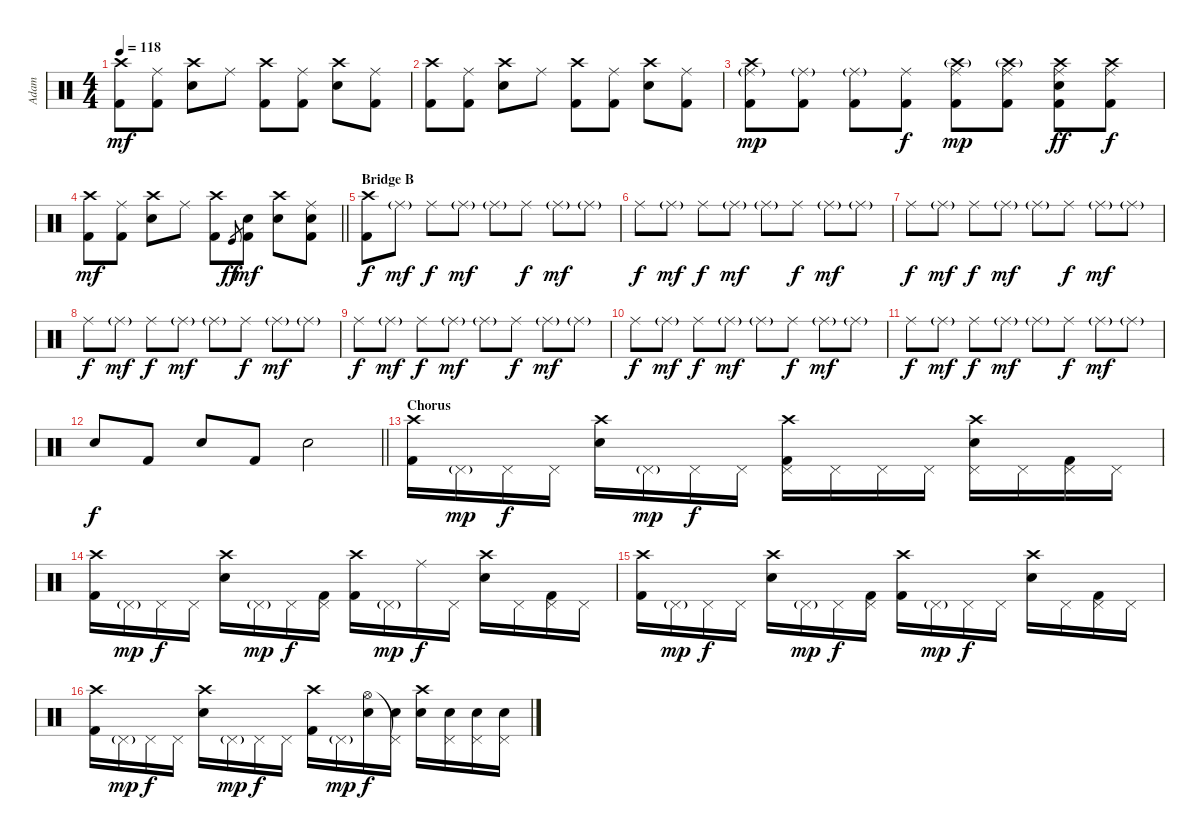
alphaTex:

\track ("Adam" "Adam") {instrument percussion}
\staff {score}
\articulation defaults
\ts (4 4)
\tempo 118
\clef neutral
\ks c
("Crash high (hit)" "Kick (hit) 2").8{dy mf} ("Kick (hit) 2" "Ride (middle)").8 ("Snare (hit) 2" "Crash high (hit)").8 "Ride (middle)".8 ("Kick (hit) 2" "Crash high (hit)").8 ("Kick (hit) 2" "Ride (middle)").8 ("Snare (hit) 2" "Crash high (hit)").8 ("Kick (hit) 2" "Ride (middle)").8 |
("Crash high (hit)" "Kick (hit) 2").8 ("Kick (hit) 2" "Ride (middle)").8 ("Snare (hit) 2" "Crash high (hit)").8 "Ride (middle)".8 ("Kick (hit) 2" "Crash high (hit)").8 ("Kick (hit) 2" "Ride (middle)").8 ("Snare (hit) 2" "Crash high (hit)").8 ("Kick (hit) 2" "Ride (middle)").8 |
("Crash high (hit)" "Ride (middle)"{g} "Kick (hit) 2").8{dy mp} ("Ride (middle)"{g} "Kick (hit) 2").8 ("Ride (middle)"{g} "Kick (hit) 2").8 ("Ride (middle)" "Kick (hit) 2").8{dy f} ("Crash high (hit)"{g} "Ride (middle)" "Kick (hit) 2").8{dy mp} ("Crash high (hit)"{g} "Ride (middle)" "Kick (hit) 2").8 ("Snare (hit) 2" "Crash high (hit)" "Ride (middle)" "Kick (hit) 2").8{dy ff} ("Crash high (hit)" "Ride (middle)" "Kick (hit) 2").8{dy f} |
\barLineRight lightlight
("Crash high (hit)" "Kick (hit) 2").8{dy mf} ("Kick (hit) 2" "Ride (middle)").8 ("Snare (hit) 2" "Crash high (hit)").8 "Ride (middle)".8 ("Kick (hit) 2" "Crash high (hit)").8 "Kick (hit)".8{gr dy ff} ("Kick (hit) 2" "Snare (hit) 2").8{dy mf} ("Snare (hit) 2" "Crash high (hit)").8 ("Kick (hit) 2" "Snare (hit) 2" "Ride (middle)").8 |
\section ("" "Bridge B")
("Crash high (hit)" "Kick (hit) 2").8{dy f} "Ride (middle)"{g}.8{dy mf} "Ride (middle)".8{dy f} "Ride (middle)"{g}.8{dy mf} "Ride (middle)"{g}.8 "Ride (middle)".8{dy f} "Ride (middle)"{g}.8{dy mf} "Ride (middle)"{g}.8 |
"Ride (middle)".8{dy f} "Ride (middle)"{g}.8{dy mf} "Ride (middle)".8{dy f} "Ride (middle)"{g}.8{dy mf} "Ride (middle)"{g}.8 "Ride (middle)".8{dy f} "Ride (middle)"{g}.8{dy mf} "Ride (middle)"{g}.8 |
"Ride (middle)".8{dy f} "Ride (middle)"{g}.8{dy mf} "Ride (middle)".8{dy f} "Ride (middle)"{g}.8{dy mf} "Ride (middle)"{g}.8 "Ride (middle)".8{dy f} "Ride (middle)"{g}.8{dy mf} "Ride (middle)"{g}.8 |
"Ride (middle)".8{dy f} "Ride (middle)"{g}.8{dy mf} "Ride (middle)".8{dy f} "Ride (middle)"{g}.8{dy mf} "Ride (middle)"{g}.8 "Ride (middle)".8{dy f} "Ride (middle)"{g}.8{dy mf} "Ride (middle)"{g}.8 |
"Ride (middle)".8{dy f} "Ride (middle)"{g}.8{dy mf} "Ride (middle)".8{dy f} "Ride (middle)"{g}.8{dy mf} "Ride (middle)"{g}.8 "Ride (middle)".8{dy f} "Ride (middle)"{g}.8{dy mf} "Ride (middle)"{g}.8 |
"Ride (middle)".8{dy f} "Ride (middle)"{g}.8{dy mf} "Ride (middle)".8{dy f} "Ride (middle)"{g}.8{dy mf} "Ride (middle)"{g}.8 "Ride (middle)".8{dy f} "Ride (middle)"{g}.8{dy mf} "Ride (middle)"{g}.8 |
"Ride (middle)".8{dy f} "Ride (middle)"{g}.8{dy mf} "Ride (middle)".8{dy f} "Ride (middle)"{g}.8{dy mf} "Ride (middle)"{g}.8 "Ride (middle)".8{dy f} "Ride (middle)"{g}.8{dy mf} "Ride (middle)"{g}.8 |
\barLineRight lightlight "Snare (hit) 2".8{dy f} "Kick (hit) 2".8 "Snare (hit) 2".8 "Kick (hit) 2".8 "Snare (hit) 2".2
|
\section ("" "Chorus")
("Kick (hit) 2" "Crash high (hit)").16 "Pedal Hi-Hat (hit)"{g}.16{dy mp} "Pedal Hi-Hat (hit)".16{dy f} "Pedal Hi-Hat (hit)".16 ("Snare (hit) 2" "Crash high (hit)").16 "Pedal Hi-Hat (hit)"{g}.16{dy mp} "Pedal Hi-Hat (hit)".16{dy f} "Pedal Hi-Hat (hit)".16 ("Kick (hit) 2" "Pedal Hi-Hat (hit)" "Crash high (hit)").16 "Pedal Hi-Hat (hit)".16 "Pedal Hi-Hat (hit)".16 "Pedal Hi-Hat (hit)".16 ("Snare (hit) 2" "Pedal Hi-Hat (hit)" "Crash high (hit)").16 "Pedal Hi-Hat (hit)".16 ("Pedal Hi-Hat (hit)" "Kick (hit) 2").16 "Pedal Hi-Hat (hit)".16 |
("Kick (hit) 2" "Crash high (hit)").16 "Pedal Hi-Hat (hit)"{g}.16{dy mp} "Pedal Hi-Hat (hit)".16{dy f} "Pedal Hi-Hat (hit)".16 ("Snare (hit) 2" "Crash high (hit)").16 "Pedal Hi-Hat (hit)"{g}.16{dy mp} "Pedal Hi-Hat (hit)".16{dy f} ("Pedal Hi-Hat (hit)" "Kick (hit) 2").16 ("Kick (hit) 2" "Crash high (hit)").16 "Pedal Hi-Hat (hit)"{g}.16{dy mp} "Ride (middle)".16{dy f} "Pedal Hi-Hat (hit)".16 ("Snare (hit) 2" "Crash high (hit)").16 "Pedal Hi-Hat (hit)".16 ("Pedal Hi-Hat (hit)" "Kick (hit) 2").16 "Pedal Hi-Hat (hit)".16 |
("Kick (hit) 2" "Crash high (hit)").16 "Pedal Hi-Hat (hit)"{g}.16{dy mp} "Pedal Hi-Hat (hit)".16{dy f} "Pedal Hi-Hat (hit)".16 ("Snare (hit) 2" "Crash high (hit)").16 "Pedal Hi-Hat (hit)"{g}.16{dy mp} "Pedal Hi-Hat (hit)".16{dy f} ("Pedal Hi-Hat (hit)" "Kick (hit) 2").16 ("Kick (hit) 2" "Crash high (hit)").16 "Pedal Hi-Hat (hit)"{g}.16{dy mp} "Pedal Hi-Hat (hit)".16{dy f} "Pedal Hi-Hat (hit)".16 ("Snare (hit) 2" "Crash high (hit)").16 "Pedal Hi-Hat (hit)".16 ("Pedal Hi-Hat (hit)" "Kick (hit) 2").16 "Pedal Hi-Hat (hit)".16 |
("Kick (hit) 2" "Crash high (hit)").16 "Pedal Hi-Hat (hit)"{g}.16{dy mp} "Pedal Hi-Hat (hit)".16{dy f} "Pedal Hi-Hat (hit)".16 ("Snare (hit) 2" "Crash high (hit)").16 "Pedal Hi-Hat (hit)"{g}.16{dy mp} "Pedal Hi-Hat (hit)".16{dy f} "Pedal Hi-Hat (hit)".16 ("Kick (hit) 2" "Crash high (hit)").16 "Pedal Hi-Hat (hit)"{g}.16{dy mp} ("Snare (hit) 2" "Hi-Hat (open)").16{dy f} ("Snare (hit) 2" "Pedal Hi-Hat (hit)"{t}).16 ("Snare (hit) 2" "Crash high (hit)").16 ("Snare (hit) 2" "Pedal Hi-Hat (hit)").16 ("Snare (hit) 2" "Pedal Hi-Hat (hit)").16 ("Snare (hit) 2" "Pedal Hi-Hat (hit)").16
